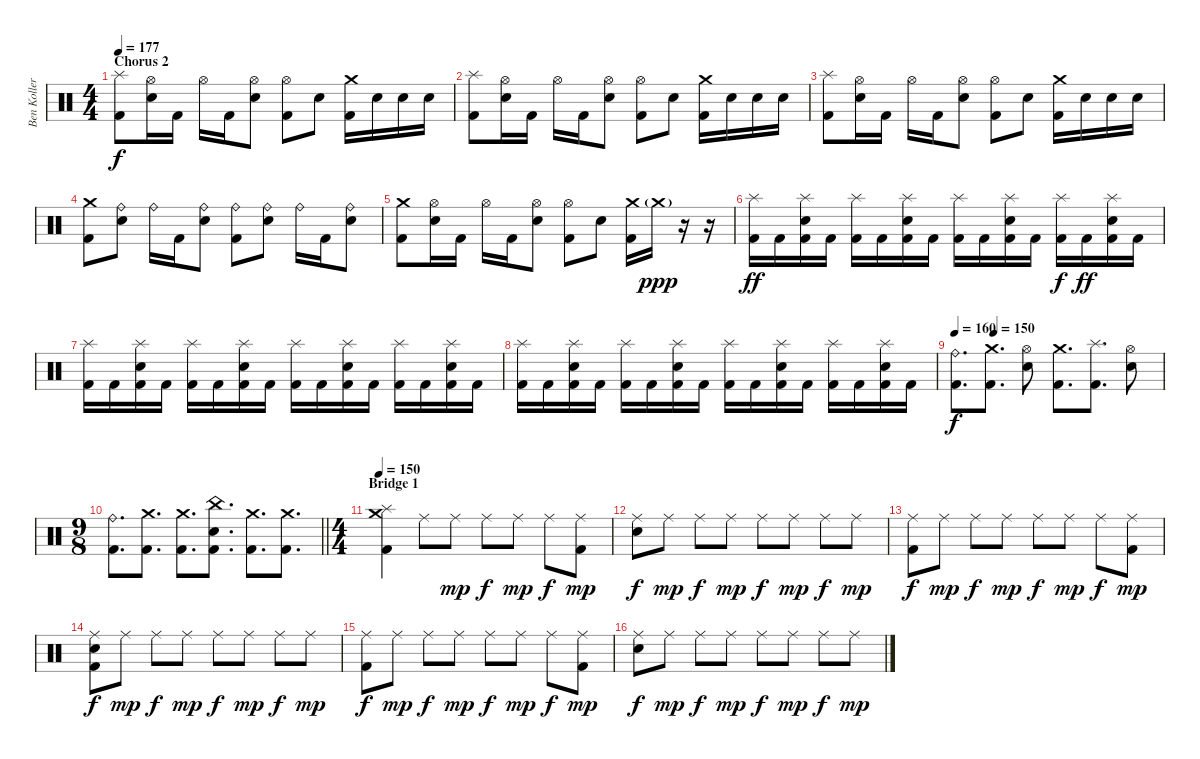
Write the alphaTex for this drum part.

\track ("Ben Koller" "Ben Koller") {instrument percussion}
\staff {score}
\articulation defaults
\ts (4 4)
\section ("" "Chorus 2")
\tempo 177
\clef neutral
\ks c
("Splash (hit)" "Kick (hit) 2").8{dy f} ("Hi-Hat (open)" "Electric Snare (hit)").16 "Kick (hit) 2".16 "Hi-Hat (open)".16 "Kick (hit) 2".16 ("Hi-Hat (open)" "Electric Snare (hit)").8 ("Hi-Hat (open)" "Kick (hit) 2").8 "Electric Snare (hit)".8 ("Crash medium (hit)" "Kick (hit) 2").16 "Electric Snare (hit)".16 "Electric Snare (hit)".16 "Electric Snare (hit)".16 |
("Splash (hit)" "Kick (hit) 2").8 ("Hi-Hat (open)" "Electric Snare (hit)").16 "Kick (hit) 2".16 "Hi-Hat (open)".16 "Kick (hit) 2".16 ("Hi-Hat (open)" "Electric Snare (hit)").8 ("Hi-Hat (open)" "Kick (hit) 2").8 "Electric Snare (hit)".8 ("Crash medium (hit)" "Kick (hit) 2").16 "Electric Snare (hit)".16 "Electric Snare (hit)".16 "Electric Snare (hit)".16 |
("Splash (hit)" "Kick (hit) 2").8 ("Hi-Hat (open)" "Electric Snare (hit)").16 "Kick (hit) 2".16 "Hi-Hat (open)".16 "Kick (hit) 2".16 ("Hi-Hat (open)" "Electric Snare (hit)").8 ("Hi-Hat (open)" "Kick (hit) 2").8 "Electric Snare (hit)".8 ("Crash medium (hit)" "Kick (hit) 2").16 "Electric Snare (hit)".16 "Electric Snare (hit)".16 "Electric Snare (hit)".16 |
("Crash medium (hit)" "Kick (hit) 2").8 ("Ride (bell)" "Electric Snare (hit)").8 "Ride (bell)".16 "Kick (hit) 2".16 ("Ride (bell)" "Electric Snare (hit)").8 ("Ride (bell)" "Kick (hit) 2").8 ("Ride (bell)" "Electric Snare (hit)").8 "Ride (bell)".16 "Kick (hit) 2".16 ("Ride (bell)" "Electric Snare (hit)").8 |
("Crash medium (hit)" "Kick (hit) 2").8 ("Hi-Hat (open)" "Electric Snare (hit)").16 "Kick (hit) 2".16 "Hi-Hat (open)".16 "Kick (hit) 2".16 ("Hi-Hat (open)" "Electric Snare (hit)").8 ("Hi-Hat (open)" "Kick (hit) 2").8 "Electric Snare (hit)".8 ("Crash medium (hit)" "Kick (hit) 2").16 "Crash medium (hit)"{g}.16{dy ppp} r.16 r.16 |
("Splash (hit)" "Kick (hit) 2").16{dy ff} "Kick (hit) 2".16 ("Splash (hit)" "Electric Snare (hit)" "Kick (hit) 2").16 "Kick (hit) 2".16 ("Splash (hit)" "Kick (hit) 2").16 "Kick (hit) 2".16 ("Splash (hit)" "Electric Snare (hit)" "Kick (hit) 2").16 "Kick (hit) 2".16 ("Splash (hit)" "Kick (hit) 2").16 "Kick (hit) 2".16 ("Splash (hit)" "Electric Snare (hit)" "Kick (hit) 2").16 "Kick (hit) 2".16 ("Splash (hit)" "Kick (hit) 2").16{dy f} "Kick (hit) 2".16{dy ff} ("Splash (hit)" "Electric Snare (hit)" "Kick (hit) 2").16 "Kick (hit) 2".16 |
("Splash (hit)" "Kick (hit) 2").16 "Kick (hit) 2".16 ("Splash (hit)" "Electric Snare (hit)" "Kick (hit) 2").16 "Kick (hit) 2".16 ("Splash (hit)" "Kick (hit) 2").16 "Kick (hit) 2".16 ("Splash (hit)" "Electric Snare (hit)" "Kick (hit) 2").16 "Kick (hit) 2".16 ("Splash (hit)" "Kick (hit) 2").16 "Kick (hit) 2".16 ("Splash (hit)" "Electric Snare (hit)" "Kick (hit) 2").16 "Kick (hit) 2".16 ("Splash (hit)" "Kick (hit) 2").16 "Kick (hit) 2".16 ("Splash (hit)" "Electric Snare (hit)" "Kick (hit) 2").16 "Kick (hit) 2".16 |
("Splash (hit)" "Kick (hit) 2").16 "Kick (hit) 2".16 ("Splash (hit)" "Electric Snare (hit)" "Kick (hit) 2").16 "Kick (hit) 2".16 ("Splash (hit)" "Kick (hit) 2").16 "Kick (hit) 2".16 ("Splash (hit)" "Electric Snare (hit)" "Kick (hit) 2").16 "Kick (hit) 2".16 ("Splash (hit)" "Kick (hit) 2").16 "Kick (hit) 2".16 ("Splash (hit)" "Electric Snare (hit)" "Kick (hit) 2").16 "Kick (hit) 2".16 ("Splash (hit)" "Kick (hit) 2").16 "Kick (hit) 2".16 ("Splash (hit)" "Electric Snare (hit)" "Kick (hit) 2").16 "Kick (hit) 2".16 |
\tempo 160
\tempo (150 0.1875)
("Ride (bell)" "Kick (hit) 2").8{d dy f} ("Crash medium (hit)" "Kick (hit) 2").8{d} ("Hi-Hat (open)" "Electric Snare (hit)").8 ("Crash medium (hit)" "Kick (hit) 2").8{d} ("Splash (hit)" "Kick (hit) 2").8{d} ("Hi-Hat (open)" "Electric Snare (hit)").8 |
\ts (9 8)
\barLineRight lightlight
("Ride (bell)" "Kick (hit) 2").8{d} ("Crash medium (hit)" "Kick (hit) 2").8{d} ("Crash medium (hit)" "Kick (hit) 2").8{d} ("China (hit)" "Electric Snare (hit)" "Kick (hit) 2").8{d} ("Crash medium (hit)" "Kick (hit) 2").8{d} ("Crash medium (hit)" "Kick (hit) 2").8{d} |
\ts (4 4)
\section ("" "Bridge 1")
\tempo 150
("Splash (hit)" "Crash medium (hit)" "Kick (hit) 2").4 "Ride (middle)".8 "Ride (middle)".8{dy mp} "Ride (middle)".8{dy f} "Ride (middle)".8{dy mp} "Ride (middle)".8{dy f} ("Ride (middle)" "Kick (hit) 2").8{dy mp} |
("Ride (middle)" "Electric Snare (hit)").8{dy f} "Ride (middle)".8{dy mp} "Ride (middle)".8{dy f} "Ride (middle)".8{dy mp} "Ride (middle)".8{dy f} "Ride (middle)".8{dy mp} "Ride (middle)".8{dy f} "Ride (middle)".8{dy mp} |
("Ride (middle)" "Kick (hit) 2").8{dy f} "Ride (middle)".8{dy mp} "Ride (middle)".8{dy f} "Ride (middle)".8{dy mp} "Ride (middle)".8{dy f} "Ride (middle)".8{dy mp} "Ride (middle)".8{dy f} ("Ride (middle)" "Kick (hit) 2").8{dy mp} |
("Ride (middle)" "Electric Snare (hit)" "Kick (hit) 2").8{dy f} "Ride (middle)".8{dy mp} "Ride (middle)".8{dy f} "Ride (middle)".8{dy mp} "Ride (middle)".8{dy f} "Ride (middle)".8{dy mp} "Ride (middle)".8{dy f} "Ride (middle)".8{dy mp} |
("Ride (middle)" "Kick (hit) 2").8{dy f} "Ride (middle)".8{dy mp} "Ride (middle)".8{dy f} "Ride (middle)".8{dy mp} "Ride (middle)".8{dy f} "Ride (middle)".8{dy mp} "Ride (middle)".8{dy f} ("Ride (middle)" "Kick (hit) 2").8{dy mp} |
("Ride (middle)" "Electric Snare (hit)").8{dy f} "Ride (middle)".8{dy mp} "Ride (middle)".8{dy f} "Ride (middle)".8{dy mp} "Ride (middle)".8{dy f} "Ride (middle)".8{dy mp} "Ride (middle)".8{dy f} "Ride (middle)".8{dy mp}
